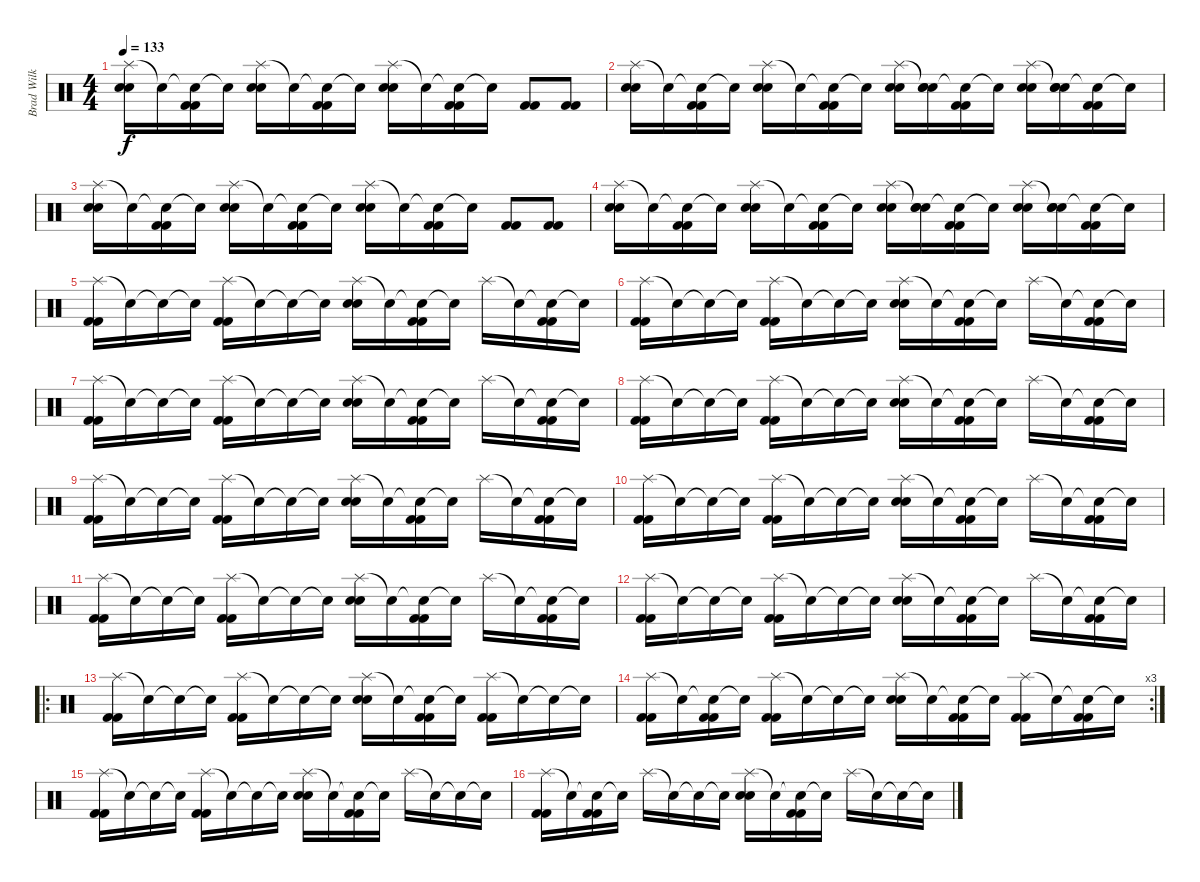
\track ("Brad Wilk" "Brad Wilk") {instrument percussion}
\staff {score}
\articulation defaults
\ts (4 4)
\tempo 133
\clef neutral
\ks c
("Splash (hit)" "Electric Snare (hit)" "Electric Snare (hit)").16{dy f} "Snare (hit)"{t}.16 ("Snare (hit)"{t} "Kick (hit) 2" "Kick (hit) 2").16 "Snare (hit)"{t}.16 ("Splash (hit)" "Electric Snare (hit)" "Electric Snare (hit)").16 "Snare (hit)"{t}.16 ("Snare (hit)"{t} "Kick (hit) 2" "Kick (hit) 2").16 "Snare (hit)"{t}.16 ("Splash (hit)" "Electric Snare (hit)" "Electric Snare (hit)").16 "Snare (hit)"{t}.16 ("Snare (hit)"{t} "Kick (hit) 2" "Kick (hit) 2").16 "Snare (hit)"{t}.16 ("Kick (hit) 2" "Kick (hit) 2").8 ("Kick (hit) 2" "Kick (hit) 2").8 |
("Splash (hit)" "Electric Snare (hit)" "Electric Snare (hit)").16 "Snare (hit)"{t}.16 ("Snare (hit)"{t} "Kick (hit) 2" "Kick (hit) 2").16 "Snare (hit)"{t}.16 ("Splash (hit)" "Electric Snare (hit)" "Electric Snare (hit)").16 "Snare (hit)"{t}.16 ("Snare (hit)"{t} "Kick (hit) 2" "Kick (hit) 2").16 "Snare (hit)"{t}.16 ("Splash (hit)" "Electric Snare (hit)" "Electric Snare (hit)").16 ("Snare (hit)"{t} "Electric Snare (hit)" "Electric Snare (hit)").16 ("Snare (hit)"{t} "Kick (hit) 2" "Kick (hit) 2").16 "Snare (hit)"{t}.16 ("Splash (hit)" "Electric Snare (hit)" "Electric Snare (hit)").16 ("Snare (hit)"{t} "Electric Snare (hit)" "Electric Snare (hit)").16 ("Snare (hit)"{t} "Kick (hit) 2" "Kick (hit) 2").16 "Snare (hit)"{t}.16 |
("Splash (hit)" "Electric Snare (hit)" "Electric Snare (hit)").16 "Snare (hit)"{t}.16 ("Snare (hit)"{t} "Kick (hit) 2" "Kick (hit) 2").16 "Snare (hit)"{t}.16 ("Splash (hit)" "Electric Snare (hit)" "Electric Snare (hit)").16 "Snare (hit)"{t}.16 ("Snare (hit)"{t} "Kick (hit) 2" "Kick (hit) 2").16 "Snare (hit)"{t}.16 ("Splash (hit)" "Electric Snare (hit)" "Electric Snare (hit)").16 "Snare (hit)"{t}.16 ("Snare (hit)"{t} "Kick (hit) 2" "Kick (hit) 2").16 "Snare (hit)"{t}.16 ("Kick (hit) 2" "Kick (hit) 2").8 ("Kick (hit) 2" "Kick (hit) 2").8 |
("Splash (hit)" "Electric Snare (hit)" "Electric Snare (hit)").16 "Snare (hit)"{t}.16 ("Snare (hit)"{t} "Kick (hit) 2" "Kick (hit) 2").16 "Snare (hit)"{t}.16 ("Splash (hit)" "Electric Snare (hit)" "Electric Snare (hit)").16 "Snare (hit)"{t}.16 ("Snare (hit)"{t} "Kick (hit) 2" "Kick (hit) 2").16 "Snare (hit)"{t}.16 ("Splash (hit)" "Electric Snare (hit)" "Electric Snare (hit)").16 ("Snare (hit)"{t} "Electric Snare (hit)" "Electric Snare (hit)").16 ("Snare (hit)"{t} "Kick (hit) 2" "Kick (hit) 2").16 "Snare (hit)"{t}.16 ("Splash (hit)" "Electric Snare (hit)" "Electric Snare (hit)").16 ("Snare (hit)"{t} "Electric Snare (hit)" "Electric Snare (hit)").16 ("Snare (hit)"{t} "Kick (hit) 2" "Kick (hit) 2").16 "Snare (hit)"{t}.16 |
("Splash (hit)" "Kick (hit) 2" "Kick (hit) 2").16 "Snare (hit)"{t}.16 "Snare (hit)"{t}.16 "Snare (hit)"{t}.16 ("Splash (hit)" "Kick (hit) 2" "Kick (hit) 2").16 "Snare (hit)"{t}.16 "Snare (hit)"{t}.16 "Snare (hit)"{t}.16 ("Splash (hit)" "Electric Snare (hit)" "Electric Snare (hit)").16 "Snare (hit)"{t}.16 ("Snare (hit)"{t} "Kick (hit) 2" "Kick (hit) 2").16 "Snare (hit)"{t}.16 "Splash (hit)".16 "Snare (hit)"{t}.16 ("Snare (hit)"{t} "Kick (hit) 2" "Kick (hit) 2").16 "Snare (hit)"{t}.16 |
("Splash (hit)" "Kick (hit) 2" "Kick (hit) 2").16 "Snare (hit)"{t}.16 "Snare (hit)"{t}.16 "Snare (hit)"{t}.16 ("Splash (hit)" "Kick (hit) 2" "Kick (hit) 2").16 "Snare (hit)"{t}.16 "Snare (hit)"{t}.16 "Snare (hit)"{t}.16 ("Splash (hit)" "Electric Snare (hit)" "Electric Snare (hit)").16 "Snare (hit)"{t}.16 ("Snare (hit)"{t} "Kick (hit) 2" "Kick (hit) 2").16 "Snare (hit)"{t}.16 "Splash (hit)".16 "Snare (hit)"{t}.16 ("Snare (hit)"{t} "Kick (hit) 2" "Kick (hit) 2").16 "Snare (hit)"{t}.16 |
("Splash (hit)" "Kick (hit) 2" "Kick (hit) 2").16 "Snare (hit)"{t}.16 "Snare (hit)"{t}.16 "Snare (hit)"{t}.16 ("Splash (hit)" "Kick (hit) 2" "Kick (hit) 2").16 "Snare (hit)"{t}.16 "Snare (hit)"{t}.16 "Snare (hit)"{t}.16 ("Splash (hit)" "Electric Snare (hit)" "Electric Snare (hit)").16 "Snare (hit)"{t}.16 ("Snare (hit)"{t} "Kick (hit) 2" "Kick (hit) 2").16 "Snare (hit)"{t}.16 "Splash (hit)".16 "Snare (hit)"{t}.16 ("Snare (hit)"{t} "Kick (hit) 2" "Kick (hit) 2").16 "Snare (hit)"{t}.16 |
("Splash (hit)" "Kick (hit) 2" "Kick (hit) 2").16 "Snare (hit)"{t}.16 "Snare (hit)"{t}.16 "Snare (hit)"{t}.16 ("Splash (hit)" "Kick (hit) 2" "Kick (hit) 2").16 "Snare (hit)"{t}.16 "Snare (hit)"{t}.16 "Snare (hit)"{t}.16 ("Splash (hit)" "Electric Snare (hit)" "Electric Snare (hit)").16 "Snare (hit)"{t}.16 ("Snare (hit)"{t} "Kick (hit) 2" "Kick (hit) 2").16 "Snare (hit)"{t}.16 "Splash (hit)".16 "Snare (hit)"{t}.16 ("Snare (hit)"{t} "Kick (hit) 2" "Kick (hit) 2").16 "Snare (hit)"{t}.16 |
("Splash (hit)" "Kick (hit) 2" "Kick (hit) 2").16 "Snare (hit)"{t}.16 "Snare (hit)"{t}.16 "Snare (hit)"{t}.16 ("Splash (hit)" "Kick (hit) 2" "Kick (hit) 2").16 "Snare (hit)"{t}.16 "Snare (hit)"{t}.16 "Snare (hit)"{t}.16 ("Splash (hit)" "Electric Snare (hit)" "Electric Snare (hit)").16 "Snare (hit)"{t}.16 ("Snare (hit)"{t} "Kick (hit) 2" "Kick (hit) 2").16 "Snare (hit)"{t}.16 "Splash (hit)".16 "Snare (hit)"{t}.16 ("Snare (hit)"{t} "Kick (hit) 2" "Kick (hit) 2").16 "Snare (hit)"{t}.16 |
("Splash (hit)" "Kick (hit) 2" "Kick (hit) 2").16 "Snare (hit)"{t}.16 "Snare (hit)"{t}.16 "Snare (hit)"{t}.16 ("Splash (hit)" "Kick (hit) 2" "Kick (hit) 2").16 "Snare (hit)"{t}.16 "Snare (hit)"{t}.16 "Snare (hit)"{t}.16 ("Splash (hit)" "Electric Snare (hit)" "Electric Snare (hit)").16 "Snare (hit)"{t}.16 ("Snare (hit)"{t} "Kick (hit) 2" "Kick (hit) 2").16 "Snare (hit)"{t}.16 "Splash (hit)".16 "Snare (hit)"{t}.16 ("Snare (hit)"{t} "Kick (hit) 2" "Kick (hit) 2").16 "Snare (hit)"{t}.16 |
("Splash (hit)" "Kick (hit) 2" "Kick (hit) 2").16 "Snare (hit)"{t}.16 "Snare (hit)"{t}.16 "Snare (hit)"{t}.16 ("Splash (hit)" "Kick (hit) 2" "Kick (hit) 2").16 "Snare (hit)"{t}.16 "Snare (hit)"{t}.16 "Snare (hit)"{t}.16 ("Splash (hit)" "Electric Snare (hit)" "Electric Snare (hit)").16 "Snare (hit)"{t}.16 ("Snare (hit)"{t} "Kick (hit) 2" "Kick (hit) 2").16 "Snare (hit)"{t}.16 "Splash (hit)".16 "Snare (hit)"{t}.16 ("Snare (hit)"{t} "Kick (hit) 2" "Kick (hit) 2").16 "Snare (hit)"{t}.16 |
("Splash (hit)" "Kick (hit) 2" "Kick (hit) 2").16 "Snare (hit)"{t}.16 "Snare (hit)"{t}.16 "Snare (hit)"{t}.16 ("Splash (hit)" "Kick (hit) 2" "Kick (hit) 2").16 "Snare (hit)"{t}.16 "Snare (hit)"{t}.16 "Snare (hit)"{t}.16 ("Splash (hit)" "Electric Snare (hit)" "Electric Snare (hit)").16 "Snare (hit)"{t}.16 ("Snare (hit)"{t} "Kick (hit) 2" "Kick (hit) 2").16 "Snare (hit)"{t}.16 "Splash (hit)".16 "Snare (hit)"{t}.16 ("Snare (hit)"{t} "Kick (hit) 2" "Kick (hit) 2").16 "Snare (hit)"{t}.16 |
\ro
("Splash (hit)" "Kick (hit) 2" "Kick (hit) 2").16 "Snare (hit)"{t}.16 "Snare (hit)"{t}.16 "Snare (hit)"{t}.16 ("Splash (hit)" "Kick (hit) 2" "Kick (hit) 2").16 "Snare (hit)"{t}.16 "Snare (hit)"{t}.16 "Snare (hit)"{t}.16 ("Splash (hit)" "Electric Snare (hit)" "Electric Snare (hit)").16 "Snare (hit)"{t}.16 ("Snare (hit)"{t} "Kick (hit) 2" "Kick (hit) 2").16 "Snare (hit)"{t}.16 ("Splash (hit)" "Kick (hit) 2" "Kick (hit) 2").16 "Snare (hit)"{t}.16 "Snare (hit)"{t}.16 "Snare (hit)"{t}.16 |
\rc 3
("Splash (hit)" "Kick (hit) 2" "Kick (hit) 2").16 "Snare (hit)"{t}.16 ("Snare (hit)"{t} "Kick (hit) 2" "Kick (hit) 2").16 "Snare (hit)"{t}.16 ("Splash (hit)" "Kick (hit) 2" "Kick (hit) 2").16 "Snare (hit)"{t}.16 "Snare (hit)"{t}.16 "Snare (hit)"{t}.16 ("Splash (hit)" "Electric Snare (hit)" "Electric Snare (hit)").16 "Snare (hit)"{t}.16 ("Snare (hit)"{t} "Kick (hit) 2" "Kick (hit) 2").16 "Snare (hit)"{t}.16 ("Splash (hit)" "Kick (hit) 2" "Kick (hit) 2").16 "Snare (hit)"{t}.16 ("Snare (hit)"{t} "Kick (hit) 2" "Kick (hit) 2").16 "Snare (hit)"{t}.16 |
("Splash (hit)" "Kick (hit) 2" "Kick (hit) 2").16 "Snare (hit)"{t}.16 "Snare (hit)"{t}.16 "Snare (hit)"{t}.16 ("Splash (hit)" "Kick (hit) 2" "Kick (hit) 2").16 "Snare (hit)"{t}.16 "Snare (hit)"{t}.16 "Snare (hit)"{t}.16 ("Splash (hit)" "Electric Snare (hit)" "Electric Snare (hit)").16 "Snare (hit)"{t}.16 ("Snare (hit)"{t} "Kick (hit) 2" "Kick (hit) 2").16 "Snare (hit)"{t}.16 "Splash (hit)".16 "Snare (hit)"{t}.16 "Snare (hit)"{t}.16 "Snare (hit)"{t}.16 |
("Splash (hit)" "Kick (hit) 2" "Kick (hit) 2").16 "Snare (hit)"{t}.16 ("Snare (hit)"{t} "Kick (hit) 2" "Kick (hit) 2").16 "Snare (hit)"{t}.16 "Splash (hit)".16 "Snare (hit)"{t}.16 "Snare (hit)"{t}.16 "Snare (hit)"{t}.16 ("Splash (hit)" "Electric Snare (hit)" "Electric Snare (hit)").16 "Snare (hit)"{t}.16 ("Snare (hit)"{t} "Kick (hit) 2" "Kick (hit) 2").16 "Snare (hit)"{t}.16 "Splash (hit)".16 "Snare (hit)"{t}.16 "Snare (hit)"{t}.16 "Snare (hit)"{t}.16
